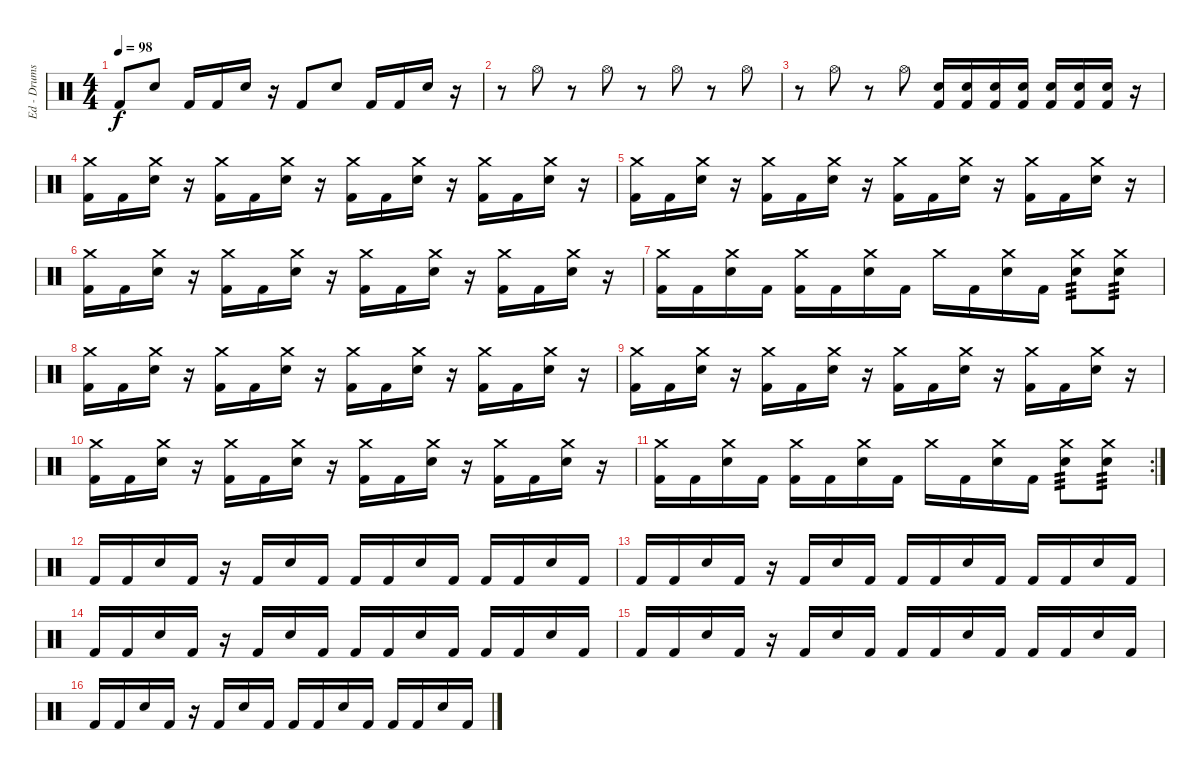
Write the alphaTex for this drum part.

\track ("Ed - Drums" "Ed - Drums") {instrument percussion}
\staff {score}
\articulation defaults
\ts (4 4)
\tempo 98
\clef neutral
\ks c "Kick (hit) 2".8{dy f} "Electric Snare (hit)".8 "Kick (hit) 2".16 "Kick (hit) 2".16 "Electric Snare (hit)".16
r.16 "Kick (hit) 2".8 "Electric Snare (hit)".8 "Kick (hit) 2".16 "Kick (hit) 2".16 "Electric Snare (hit)".16 r.16 |
r.8 "Hi-Hat (open)".8 r.8 "Hi-Hat (open)".8 r.8 "Hi-Hat (open)".8 r.8 "Hi-Hat (open)".8 |
r.8 "Hi-Hat (open)".8 r.8 "Hi-Hat (open)".8 ("Kick (hit) 2" "Electric Snare (hit)").16 ("Kick (hit) 2" "Electric Snare (hit)").16 ("Kick (hit) 2" "Electric Snare (hit)").16 ("Kick (hit) 2" "Electric Snare (hit)").16 ("Kick (hit) 2" "Electric Snare (hit)").16 ("Kick (hit) 2" "Electric Snare (hit)").16 ("Kick (hit) 2" "Electric Snare (hit)").16 r.16 |
("Crash medium (hit)" "Kick (hit) 2").16 "Kick (hit) 2".16 ("Crash medium (hit)" "Electric Snare (hit)").16 r.16 ("Crash medium (hit)" "Kick (hit) 2").16 "Kick (hit) 2".16 ("Crash medium (hit)" "Electric Snare (hit)").16 r.16 ("Crash medium (hit)" "Kick (hit) 2").16 "Kick (hit) 2".16 ("Crash medium (hit)" "Electric Snare (hit)").16 r.16 ("Crash medium (hit)" "Kick (hit) 2").16 "Kick (hit) 2".16 ("Crash medium (hit)" "Electric Snare (hit)").16 r.16 |
("Crash medium (hit)" "Kick (hit) 2").16 "Kick (hit) 2".16 ("Crash medium (hit)" "Electric Snare (hit)").16 r.16 ("Crash medium (hit)" "Kick (hit) 2").16 "Kick (hit) 2".16 ("Crash medium (hit)" "Electric Snare (hit)").16 r.16 ("Crash medium (hit)" "Kick (hit) 2").16 "Kick (hit) 2".16 ("Crash medium (hit)" "Electric Snare (hit)").16 r.16 ("Crash medium (hit)" "Kick (hit) 2").16 "Kick (hit) 2".16 ("Crash medium (hit)" "Electric Snare (hit)").16 r.16 |
("Crash medium (hit)" "Kick (hit) 2").16 "Kick (hit) 2".16 ("Crash medium (hit)" "Electric Snare (hit)").16 r.16 ("Crash medium (hit)" "Kick (hit) 2").16 "Kick (hit) 2".16 ("Crash medium (hit)" "Electric Snare (hit)").16 r.16 ("Crash medium (hit)" "Kick (hit) 2").16 "Kick (hit) 2".16 ("Crash medium (hit)" "Electric Snare (hit)").16 r.16 ("Crash medium (hit)" "Kick (hit) 2").16 "Kick (hit) 2".16 ("Crash medium (hit)" "Electric Snare (hit)").16 r.16 |
("Crash medium (hit)" "Kick (hit) 2").16 "Kick (hit) 2".16 ("Crash medium (hit)" "Electric Snare (hit)").16 "Kick (hit) 2".16 ("Crash medium (hit)" "Kick (hit) 2").16 "Kick (hit) 2".16 ("Crash medium (hit)" "Electric Snare (hit)").16 "Kick (hit) 2".16 "Crash medium (hit)".16 "Kick (hit) 2".16 ("Crash medium (hit)" "Electric Snare (hit)").16 "Kick (hit) 2".16 ("Crash medium (hit)" "Electric Snare (hit)").8{tp 3} ("Crash medium (hit)" "Electric Snare (hit)").8{tp 3} |
("Crash medium (hit)" "Kick (hit) 2").16 "Kick (hit) 2".16 ("Crash medium (hit)" "Electric Snare (hit)").16 r.16 ("Crash medium (hit)" "Kick (hit) 2").16 "Kick (hit) 2".16 ("Crash medium (hit)" "Electric Snare (hit)").16 r.16 ("Crash medium (hit)" "Kick (hit) 2").16 "Kick (hit) 2".16 ("Crash medium (hit)" "Electric Snare (hit)").16 r.16 ("Crash medium (hit)" "Kick (hit) 2").16 "Kick (hit) 2".16 ("Crash medium (hit)" "Electric Snare (hit)").16 r.16 |
("Crash medium (hit)" "Kick (hit) 2").16 "Kick (hit) 2".16 ("Crash medium (hit)" "Electric Snare (hit)").16 r.16 ("Crash medium (hit)" "Kick (hit) 2").16 "Kick (hit) 2".16 ("Crash medium (hit)" "Electric Snare (hit)").16 r.16 ("Crash medium (hit)" "Kick (hit) 2").16 "Kick (hit) 2".16 ("Crash medium (hit)" "Electric Snare (hit)").16 r.16 ("Crash medium (hit)" "Kick (hit) 2").16 "Kick (hit) 2".16 ("Crash medium (hit)" "Electric Snare (hit)").16 r.16 |
("Crash medium (hit)" "Kick (hit) 2").16 "Kick (hit) 2".16 ("Crash medium (hit)" "Electric Snare (hit)").16 r.16 ("Crash medium (hit)" "Kick (hit) 2").16 "Kick (hit) 2".16 ("Crash medium (hit)" "Electric Snare (hit)").16 r.16 ("Crash medium (hit)" "Kick (hit) 2").16 "Kick (hit) 2".16 ("Crash medium (hit)" "Electric Snare (hit)").16 r.16 ("Crash medium (hit)" "Kick (hit) 2").16 "Kick (hit) 2".16 ("Crash medium (hit)" "Electric Snare (hit)").16 r.16 |
\rc 2
("Crash medium (hit)" "Kick (hit) 2").16 "Kick (hit) 2".16 ("Crash medium (hit)" "Electric Snare (hit)").16 "Kick (hit) 2".16 ("Crash medium (hit)" "Kick (hit) 2").16 "Kick (hit) 2".16 ("Crash medium (hit)" "Electric Snare (hit)").16 "Kick (hit) 2".16 "Crash medium (hit)".16 "Kick (hit) 2".16 ("Crash medium (hit)" "Electric Snare (hit)").16 "Kick (hit) 2".16 ("Crash medium (hit)" "Electric Snare (hit)").8{tp 3} ("Crash medium (hit)" "Electric Snare (hit)").8{tp 3} |
"Kick (hit) 2".16 "Kick (hit) 2".16 "Electric Snare (hit)".16 "Kick (hit) 2".16 r.16 "Kick (hit) 2".16 "Electric Snare (hit)".16 "Kick (hit) 2".16 "Kick (hit) 2".16 "Kick (hit) 2".16 "Electric Snare (hit)".16 "Kick (hit) 2".16 "Kick (hit) 2".16 "Kick (hit) 2".16 "Electric Snare (hit)".16 "Kick (hit) 2".16 |
"Kick (hit) 2".16 "Kick (hit) 2".16 "Electric Snare (hit)".16 "Kick (hit) 2".16 r.16 "Kick (hit) 2".16 "Electric Snare (hit)".16 "Kick (hit) 2".16 "Kick (hit) 2".16 "Kick (hit) 2".16 "Electric Snare (hit)".16 "Kick (hit) 2".16 "Kick (hit) 2".16 "Kick (hit) 2".16 "Electric Snare (hit)".16 "Kick (hit) 2".16 |
"Kick (hit) 2".16 "Kick (hit) 2".16 "Electric Snare (hit)".16 "Kick (hit) 2".16 r.16 "Kick (hit) 2".16 "Electric Snare (hit)".16 "Kick (hit) 2".16 "Kick (hit) 2".16 "Kick (hit) 2".16 "Electric Snare (hit)".16 "Kick (hit) 2".16 "Kick (hit) 2".16 "Kick (hit) 2".16 "Electric Snare (hit)".16 "Kick (hit) 2".16 |
"Kick (hit) 2".16 "Kick (hit) 2".16 "Electric Snare (hit)".16 "Kick (hit) 2".16 r.16 "Kick (hit) 2".16 "Electric Snare (hit)".16 "Kick (hit) 2".16 "Kick (hit) 2".16 "Kick (hit) 2".16 "Electric Snare (hit)".16 "Kick (hit) 2".16 "Kick (hit) 2".16 "Kick (hit) 2".16 "Electric Snare (hit)".16 "Kick (hit) 2".16 |
"Kick (hit) 2".16 "Kick (hit) 2".16 "Electric Snare (hit)".16 "Kick (hit) 2".16 r.16 "Kick (hit) 2".16 "Electric Snare (hit)".16 "Kick (hit) 2".16 "Kick (hit) 2".16 "Kick (hit) 2".16 "Electric Snare (hit)".16 "Kick (hit) 2".16 "Kick (hit) 2".16 "Kick (hit) 2".16 "Electric Snare (hit)".16 "Kick (hit) 2".16
